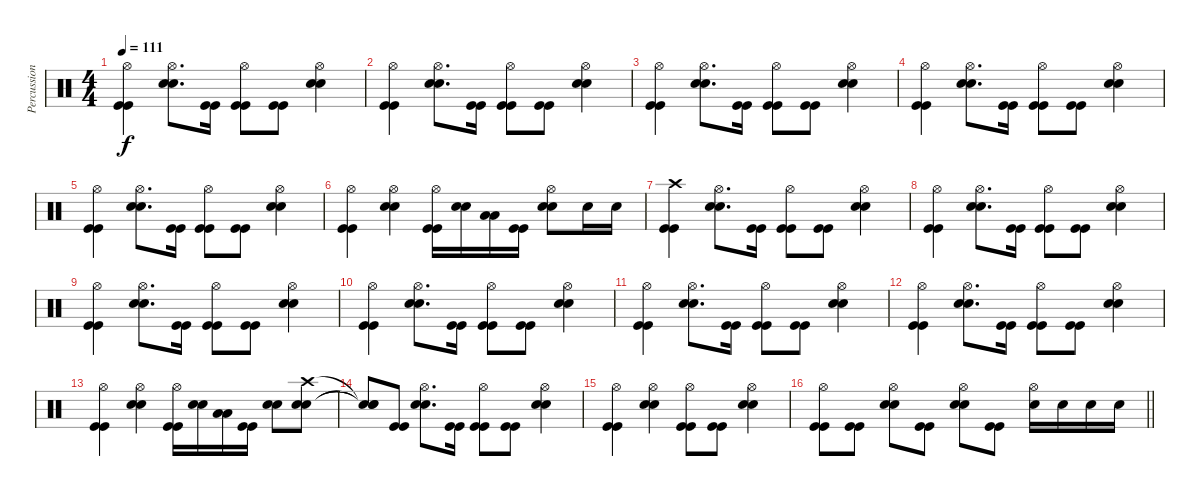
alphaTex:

\track ("Percussioni" "Percussion") {instrument percussion}
\staff {score}
\articulation defaults
\ts (4 4)
\tempo 111
\clef neutral
\ks c
("Hi-Hat (open)" "Kick (hit)" "Kick (hit)").4{dy f} ("Hi-Hat (open)" "Snare (hit) 2" "Snare (hit) 2").8{d} ("Kick (hit)" "Kick (hit)").16 ("Hi-Hat (open)" "Kick (hit)" "Kick (hit)").8 ("Kick (hit)" "Kick (hit)").8 ("Hi-Hat (open)" "Snare (hit) 2" "Snare (hit) 2").4 |
("Hi-Hat (open)" "Kick (hit)" "Kick (hit)").4 ("Hi-Hat (open)" "Snare (hit) 2" "Snare (hit) 2").8{d} ("Kick (hit)" "Kick (hit)").16 ("Hi-Hat (open)" "Kick (hit)" "Kick (hit)").8 ("Kick (hit)" "Kick (hit)").8 ("Hi-Hat (open)" "Snare (hit) 2" "Snare (hit) 2").4 |
("Hi-Hat (open)" "Kick (hit)" "Kick (hit)").4 ("Hi-Hat (open)" "Snare (hit) 2" "Snare (hit) 2").8{d} ("Kick (hit)" "Kick (hit)").16 ("Hi-Hat (open)" "Kick (hit)" "Kick (hit)").8 ("Kick (hit)" "Kick (hit)").8 ("Hi-Hat (open)" "Snare (hit) 2" "Snare (hit) 2").4 |
("Hi-Hat (open)" "Kick (hit)" "Kick (hit)").4 ("Hi-Hat (open)" "Snare (hit) 2" "Snare (hit) 2").8{d} ("Kick (hit)" "Kick (hit)").16 ("Hi-Hat (open)" "Kick (hit)" "Kick (hit)").8 ("Kick (hit)" "Kick (hit)").8 ("Hi-Hat (open)" "Snare (hit) 2" "Snare (hit) 2").4 |
("Hi-Hat (open)" "Kick (hit)" "Kick (hit)").4 ("Hi-Hat (open)" "Snare (hit) 2" "Snare (hit) 2").8{d} ("Kick (hit)" "Kick (hit)").16 ("Hi-Hat (open)" "Kick (hit)" "Kick (hit)").8 ("Kick (hit)" "Kick (hit)").8 ("Hi-Hat (open)" "Snare (hit) 2" "Snare (hit) 2").4 |
("Hi-Hat (open)" "Kick (hit)" "Kick (hit)").4 ("Hi-Hat (open)" "Snare (hit) 2" "Snare (hit) 2").4 ("Hi-Hat (open)" "Kick (hit)" "Kick (hit)").16 ("Snare (hit) 2" "Snare (hit) 2").16 ("Low Tom (hit)" "Low Tom (hit)").16 ("Kick (hit)" "Kick (hit)").16 ("Hi-Hat (open)" "Snare (hit) 2" "Snare (hit) 2").8 "Snare (hit) 2".16 "Snare (hit) 2".16 |
("Crash high (hit)" "Kick (hit)" "Kick (hit)").4 ("Hi-Hat (open)" "Snare (hit) 2" "Snare (hit) 2").8{d} ("Kick (hit)" "Kick (hit)").16 ("Hi-Hat (open)" "Kick (hit)" "Kick (hit)").8 ("Kick (hit)" "Kick (hit)").8 ("Hi-Hat (open)" "Snare (hit) 2" "Snare (hit) 2").4 |
("Hi-Hat (open)" "Kick (hit)" "Kick (hit)").4 ("Hi-Hat (open)" "Snare (hit) 2" "Snare (hit) 2").8{d} ("Kick (hit)" "Kick (hit)").16 ("Hi-Hat (open)" "Kick (hit)" "Kick (hit)").8 ("Kick (hit)" "Kick (hit)").8 ("Hi-Hat (open)" "Snare (hit) 2" "Snare (hit) 2").4 |
("Hi-Hat (open)" "Kick (hit)" "Kick (hit)").4 ("Hi-Hat (open)" "Snare (hit) 2" "Snare (hit) 2").8{d} ("Kick (hit)" "Kick (hit)").16 ("Hi-Hat (open)" "Kick (hit)" "Kick (hit)").8 ("Kick (hit)" "Kick (hit)").8 ("Hi-Hat (open)" "Snare (hit) 2" "Snare (hit) 2").4 |
("Hi-Hat (open)" "Kick (hit)" "Kick (hit)").4 ("Hi-Hat (open)" "Snare (hit) 2" "Snare (hit) 2").8{d} ("Kick (hit)" "Kick (hit)").16 ("Hi-Hat (open)" "Kick (hit)" "Kick (hit)").8 ("Kick (hit)" "Kick (hit)").8 ("Hi-Hat (open)" "Snare (hit) 2" "Snare (hit) 2").4 |
("Hi-Hat (open)" "Kick (hit)" "Kick (hit)").4 ("Hi-Hat (open)" "Snare (hit) 2" "Snare (hit) 2").8{d} ("Kick (hit)" "Kick (hit)").16 ("Hi-Hat (open)" "Kick (hit)" "Kick (hit)").8 ("Kick (hit)" "Kick (hit)").8 ("Hi-Hat (open)" "Snare (hit) 2" "Snare (hit) 2").4 |
("Hi-Hat (open)" "Kick (hit)" "Kick (hit)").4 ("Hi-Hat (open)" "Snare (hit) 2" "Snare (hit) 2").8{d} ("Kick (hit)" "Kick (hit)").16 ("Hi-Hat (open)" "Kick (hit)" "Kick (hit)").8 ("Kick (hit)" "Kick (hit)").8 ("Hi-Hat (open)" "Snare (hit) 2" "Snare (hit) 2").4 |
("Hi-Hat (open)" "Kick (hit)" "Kick (hit)").4 ("Hi-Hat (open)" "Snare (hit) 2" "Snare (hit) 2").4 ("Hi-Hat (open)" "Kick (hit)" "Kick (hit)").16 ("Snare (hit) 2" "Snare (hit) 2").16 ("Low Tom (hit)" "Low Tom (hit)").16 ("Kick (hit)" "Kick (hit)").16 ("Snare (hit) 2" "Snare (hit) 2").8 ("Crash high (hit)" "Snare (hit) 2" "Snare (hit) 2").8 |
("Snare (hit)"{t} "Snare (hit)"{t} "Snare (hit)"{t}).8 ("Kick (hit)" "Kick (hit)").8 ("Hi-Hat (open)" "Snare (hit) 2" "Snare (hit) 2").8{d} ("Kick (hit)" "Kick (hit)").16 ("Hi-Hat (open)" "Kick (hit)" "Kick (hit)").8 ("Kick (hit)" "Kick (hit)").8 ("Hi-Hat (open)" "Snare (hit) 2" "Snare (hit) 2").4 |
("Hi-Hat (open)" "Kick (hit)" "Kick (hit)").4 ("Hi-Hat (open)" "Snare (hit) 2" "Snare (hit) 2").4 ("Hi-Hat (open)" "Kick (hit)" "Kick (hit)").8 ("Kick (hit)" "Kick (hit)").8 ("Hi-Hat (open)" "Snare (hit) 2" "Snare (hit) 2").4 |
\barLineRight lightlight
("Hi-Hat (open)" "Kick (hit)" "Kick (hit)").8 ("Kick (hit)" "Kick (hit)").8 ("Hi-Hat (open)" "Snare (hit) 2" "Snare (hit) 2").8 ("Kick (hit)" "Kick (hit)").8 ("Hi-Hat (open)" "Snare (hit) 2" "Snare (hit) 2").8 ("Kick (hit)" "Kick (hit)").8 ("Hi-Hat (open)" "Snare (hit) 2").16 "Snare (hit) 2".16 "Snare (hit) 2".16 "Snare (hit) 2".16
